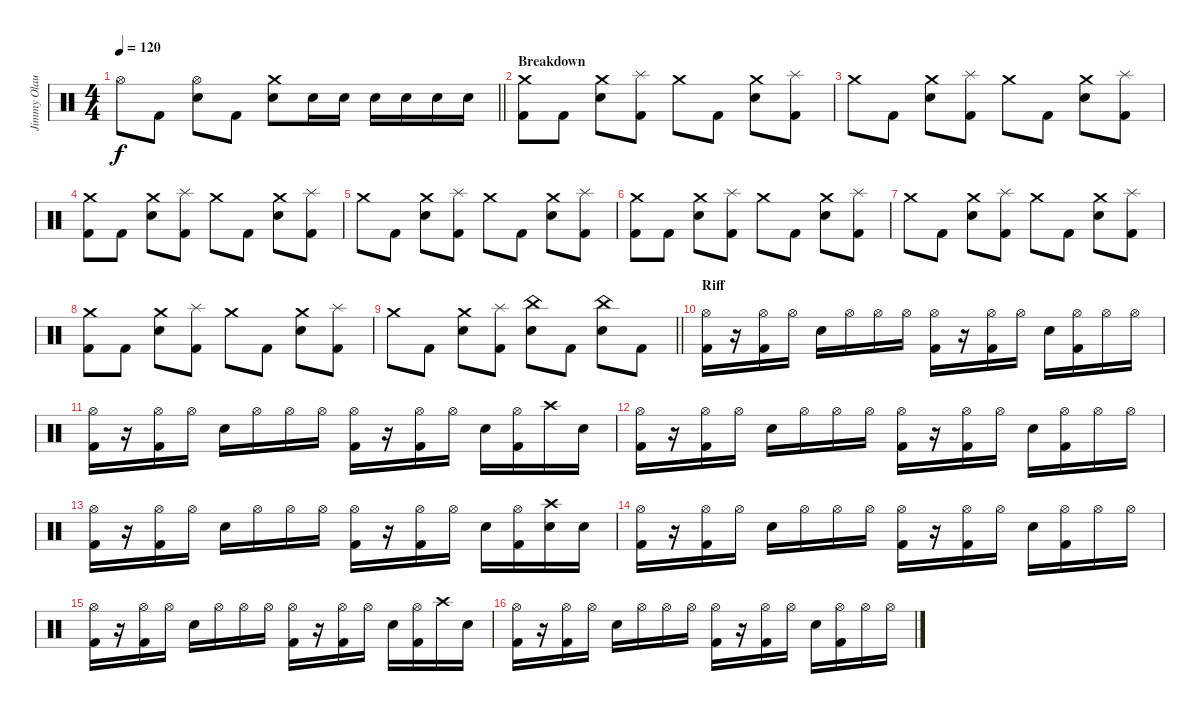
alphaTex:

\track ("Jimmy Olausson" "Jimmy Olau") {instrument percussion}
\staff {score}
\articulation defaults
\ts (4 4)
\tempo 120
\clef neutral
\barLineRight lightlight
\ks c "Hi-Hat (open)".8{dy f} "Kick (hit) 2".8
("Hi-Hat (open)" "Snare (hit) 2").8 "Kick (hit) 2".8 ("Crash medium (hit)" "Snare (hit) 2").8 "Snare (hit) 2".16 "Snare (hit) 2".16 "Snare (hit) 2".16 "Snare (hit) 2".16 "Snare (hit) 2".16 "Snare (hit) 2".16 |
\section ("" "Breakdown")
("Crash medium (hit)" "Kick (hit) 2").8 "Kick (hit) 2".8 ("Crash medium (hit)" "Snare (hit) 2").8 ("Splash (hit)" "Kick (hit) 2").8 "Crash medium (hit)".8 "Kick (hit) 2".8 ("Crash medium (hit)" "Snare (hit) 2").8 ("Splash (hit)" "Kick (hit) 2").8 |
"Crash medium (hit)".8 "Kick (hit) 2".8 ("Crash medium (hit)" "Snare (hit) 2").8 ("Splash (hit)" "Kick (hit) 2").8 "Crash medium (hit)".8 "Kick (hit) 2".8 ("Crash medium (hit)" "Snare (hit) 2").8 ("Splash (hit)" "Kick (hit) 2").8 |
("Crash medium (hit)" "Kick (hit) 2").8 "Kick (hit) 2".8 ("Crash medium (hit)" "Snare (hit) 2").8 ("Splash (hit)" "Kick (hit) 2").8 "Crash medium (hit)".8 "Kick (hit) 2".8 ("Crash medium (hit)" "Snare (hit) 2").8 ("Splash (hit)" "Kick (hit) 2").8 |
"Crash medium (hit)".8 "Kick (hit) 2".8 ("Crash medium (hit)" "Snare (hit) 2").8 ("Splash (hit)" "Kick (hit) 2").8 "Crash medium (hit)".8 "Kick (hit) 2".8 ("Crash medium (hit)" "Snare (hit) 2").8 ("Splash (hit)" "Kick (hit) 2").8 |
("Crash medium (hit)" "Kick (hit) 2").8 "Kick (hit) 2".8 ("Crash medium (hit)" "Snare (hit) 2").8 ("Splash (hit)" "Kick (hit) 2").8 "Crash medium (hit)".8 "Kick (hit) 2".8 ("Crash medium (hit)" "Snare (hit) 2").8 ("Splash (hit)" "Kick (hit) 2").8 |
"Crash medium (hit)".8 "Kick (hit) 2".8 ("Crash medium (hit)" "Snare (hit) 2").8 ("Splash (hit)" "Kick (hit) 2").8 "Crash medium (hit)".8 "Kick (hit) 2".8 ("Crash medium (hit)" "Snare (hit) 2").8 ("Splash (hit)" "Kick (hit) 2").8 |
("Crash medium (hit)" "Kick (hit) 2").8 "Kick (hit) 2".8 ("Crash medium (hit)" "Snare (hit) 2").8 ("Splash (hit)" "Kick (hit) 2").8 "Crash medium (hit)".8 "Kick (hit) 2".8 ("Crash medium (hit)" "Snare (hit) 2").8 ("Splash (hit)" "Kick (hit) 2").8 |
\barLineRight lightlight "Crash medium (hit)".8 "Kick (hit) 2".8
("Crash medium (hit)" "Snare (hit) 2").8 ("Splash (hit)" "Kick (hit) 2").8 ("China (hit)" "Snare (hit) 2").8 "Kick (hit) 2".8 ("China (hit)" "Snare (hit) 2").8 "Kick (hit) 2".8 |
\section ("" "Riff")
("Hi-Hat (open)" "Kick (hit) 2").16 r.16 ("Hi-Hat (open)" "Kick (hit) 2").16 "Hi-Hat (open)".16 "Snare (hit) 2".16 "Hi-Hat (open)".16 "Hi-Hat (open)".16 "Hi-Hat (open)".16 ("Hi-Hat (open)" "Kick (hit) 2").16 r.16 ("Hi-Hat (open)" "Kick (hit) 2").16 "Hi-Hat (open)".16 "Snare (hit) 2".16 ("Hi-Hat (open)" "Kick (hit) 2").16 "Hi-Hat (open)".16 "Hi-Hat (open)".16 |
("Hi-Hat (open)" "Kick (hit) 2").16 r.16 ("Hi-Hat (open)" "Kick (hit) 2").16 "Hi-Hat (open)".16 "Snare (hit) 2".16 "Hi-Hat (open)".16 "Hi-Hat (open)".16 "Hi-Hat (open)".16 ("Hi-Hat (open)" "Kick (hit) 2").16 r.16 ("Hi-Hat (open)" "Kick (hit) 2").16 "Hi-Hat (open)".16 "Snare (hit) 2".16 ("Hi-Hat (open)" "Kick (hit) 2").16 "Crash high (hit)".16 "Snare (hit) 2".16 |
("Hi-Hat (open)" "Kick (hit) 2").16 r.16 ("Hi-Hat (open)" "Kick (hit) 2").16 "Hi-Hat (open)".16 "Snare (hit) 2".16 "Hi-Hat (open)".16 "Hi-Hat (open)".16 "Hi-Hat (open)".16 ("Hi-Hat (open)" "Kick (hit) 2").16 r.16 ("Hi-Hat (open)" "Kick (hit) 2").16 "Hi-Hat (open)".16 "Snare (hit) 2".16 ("Hi-Hat (open)" "Kick (hit) 2").16 "Hi-Hat (open)".16 "Hi-Hat (open)".16 |
("Hi-Hat (open)" "Kick (hit) 2").16 r.16 ("Hi-Hat (open)" "Kick (hit) 2").16 "Hi-Hat (open)".16 "Snare (hit) 2".16 "Hi-Hat (open)".16 "Hi-Hat (open)".16 "Hi-Hat (open)".16 ("Hi-Hat (open)" "Kick (hit) 2").16 r.16 ("Hi-Hat (open)" "Kick (hit) 2").16 "Hi-Hat (open)".16 "Snare (hit) 2".16 ("Hi-Hat (open)" "Kick (hit) 2").16 ("Crash high (hit)" "Snare (hit) 2").16 "Snare (hit) 2".16 |
("Hi-Hat (open)" "Kick (hit) 2").16 r.16 ("Hi-Hat (open)" "Kick (hit) 2").16 "Hi-Hat (open)".16 "Snare (hit) 2".16 "Hi-Hat (open)".16 "Hi-Hat (open)".16 "Hi-Hat (open)".16 ("Hi-Hat (open)" "Kick (hit) 2").16 r.16 ("Hi-Hat (open)" "Kick (hit) 2").16 "Hi-Hat (open)".16 "Snare (hit) 2".16 ("Hi-Hat (open)" "Kick (hit) 2").16 "Hi-Hat (open)".16 "Hi-Hat (open)".16 |
("Hi-Hat (open)" "Kick (hit) 2").16 r.16 ("Hi-Hat (open)" "Kick (hit) 2").16 "Hi-Hat (open)".16 "Snare (hit) 2".16 "Hi-Hat (open)".16 "Hi-Hat (open)".16 "Hi-Hat (open)".16 ("Hi-Hat (open)" "Kick (hit) 2").16 r.16 ("Hi-Hat (open)" "Kick (hit) 2").16 "Hi-Hat (open)".16 "Snare (hit) 2".16 ("Hi-Hat (open)" "Kick (hit) 2").16 "Crash high (hit)".16 "Snare (hit) 2".16 |
("Hi-Hat (open)" "Kick (hit) 2").16 r.16 ("Hi-Hat (open)" "Kick (hit) 2").16 "Hi-Hat (open)".16 "Snare (hit) 2".16 "Hi-Hat (open)".16 "Hi-Hat (open)".16 "Hi-Hat (open)".16 ("Hi-Hat (open)" "Kick (hit) 2").16 r.16 ("Hi-Hat (open)" "Kick (hit) 2").16 "Hi-Hat (open)".16 "Snare (hit) 2".16 ("Hi-Hat (open)" "Kick (hit) 2").16 "Hi-Hat (open)".16 "Hi-Hat (open)".16
